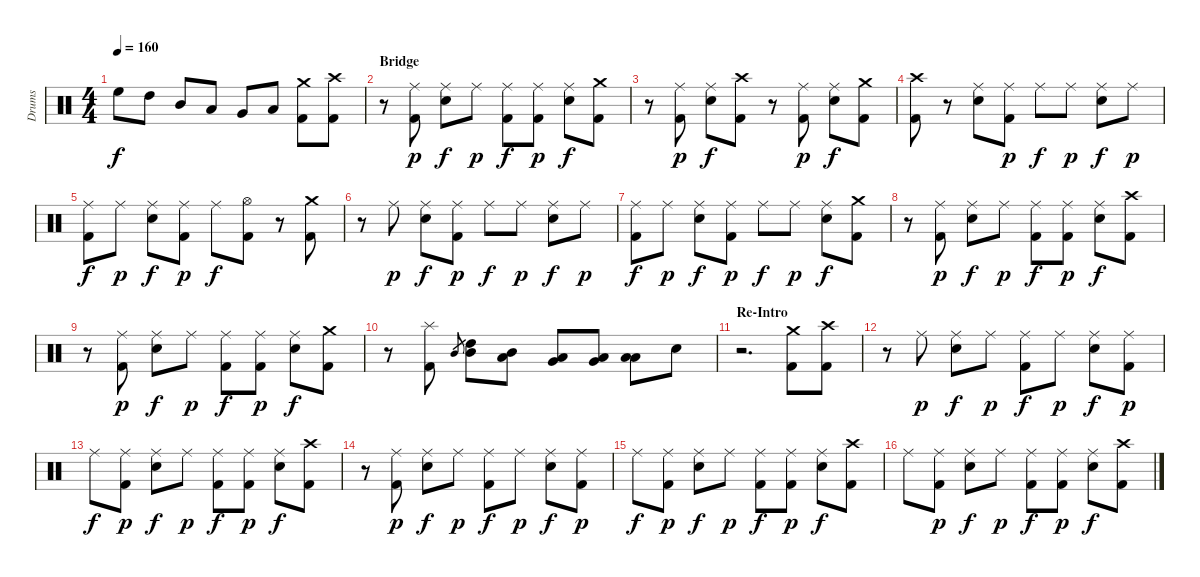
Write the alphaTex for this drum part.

\track ("Drums" "Drums") {instrument percussion}
\staff {score}
\articulation defaults
\ts (4 4)
\tempo 160
\clef neutral
\ks c "High Floor Tom (hit)".8{dy f} "High Tom (hit)".8 "Mid Tom (hit)".8 "Low Tom (hit)".8 "Very Low Tom (hit)".8 "Low Floor Tom (hit)".8
("Crash medium (hit)" "Kick (hit) 2").8 ("Crash high (hit)" "Kick (hit) 2").8 |
\section ("" "Bridge")
r.8 ("Ride (middle)" "Kick (hit) 2").8{dy p} ("Ride (middle)" "Snare (hit) 2").8{dy f} "Ride (middle)".8{dy p} ("Ride (middle)" "Kick (hit) 2").8{dy f} ("Ride (middle)" "Kick (hit) 2").8{dy p} ("Ride (middle)" "Snare (hit) 2").8{dy f} ("Crash medium (hit)" "Kick (hit) 2").8 |
r.8 ("Ride (middle)" "Kick (hit) 2").8{dy p} ("Ride (middle)" "Snare (hit) 2").8{dy f} ("Crash high (hit)" "Kick (hit) 2").8 r.8 ("Ride (middle)" "Kick (hit) 2").8{dy p} ("Ride (middle)" "Snare (hit) 2").8{dy f} ("Crash medium (hit)" "Kick (hit) 2").8 |
("Crash high (hit)" "Kick (hit) 2").8 r.8 ("Ride (middle)" "Snare (hit) 2").8 ("Ride (middle)" "Kick (hit) 2").8{dy p} "Ride (middle)".8{dy f} "Ride (middle)".8{dy p} ("Ride (middle)" "Snare (hit) 2").8{dy f} "Ride (middle)".8{dy p} |
("Ride (middle)" "Kick (hit) 2").8{dy f} "Ride (middle)".8{dy p} ("Ride (middle)" "Snare (hit) 2").8{dy f} ("Ride (middle)" "Kick (hit) 2").8{dy p} "Ride (middle)".8{dy f} ("Hi-Hat (open)" "Kick (hit) 2").8 r.8 ("Crash medium (hit)" "Kick (hit) 2").8 |
r.8 "Ride (middle)".8{dy p} ("Ride (middle)" "Snare (hit) 2").8{dy f} ("Ride (middle)" "Kick (hit) 2").8{dy p} "Ride (middle)".8{dy f} "Ride (middle)".8{dy p} ("Ride (middle)" "Snare (hit) 2").8{dy f} "Ride (middle)".8{dy p} |
("Ride (middle)" "Kick (hit) 2").8{dy f} "Ride (middle)".8{dy p} ("Ride (middle)" "Snare (hit) 2").8{dy f} ("Ride (middle)" "Kick (hit) 2").8{dy p} "Ride (middle)".8{dy f} "Ride (middle)".8{dy p} ("Ride (middle)" "Snare (hit) 2").8{dy f} ("Crash medium (hit)" "Kick (hit) 2").8 |
r.8 ("Ride (middle)" "Kick (hit) 2").8{dy p} ("Ride (middle)" "Snare (hit) 2").8{dy f} "Ride (middle)".8{dy p} ("Ride (middle)" "Kick (hit) 2").8{dy f} ("Ride (middle)" "Kick (hit) 2").8{dy p} ("Ride (middle)" "Snare (hit) 2").8{dy f} ("Crash high (hit)" "Kick (hit) 2").8 |
r.8 ("Ride (middle)" "Kick (hit) 2").8{dy p} ("Ride (middle)" "Snare (hit) 2").8{dy f} "Ride (middle)".8{dy p} ("Ride (middle)" "Kick (hit) 2").8{dy f} ("Ride (middle)" "Kick (hit) 2").8{dy p} ("Ride (middle)" "Snare (hit) 2").8{dy f} ("Crash medium (hit)" "Kick (hit) 2").8 |
r.8 ("Splash (hit)" "Kick (hit) 2").8 "Mid Tom (hit)".8{gr} ("High Tom (hit)" "Mid Tom (hit)").8 ("Mid Tom (hit)" "Low Tom (hit)").8 ("Low Tom (hit)" "Very Low Tom (hit)").8 ("Very Low Tom (hit)" "Low Floor Tom (hit)").8 ("Low Floor Tom (hit)" "Low Floor Tom (hit)").8 "Snare (hit) 2".8 |
\section ("" "Re-Intro")
r.2{d} ("Crash medium (hit)" "Kick (hit) 2").8 ("Crash high (hit)" "Kick (hit) 2").8 |
r.8 "Ride (middle)".8{dy p} ("Ride (middle)" "Snare (hit) 2").8{dy f} "Ride (middle)".8{dy p} ("Ride (middle)" "Kick (hit) 2").8{dy f} "Ride (middle)".8{dy p} ("Ride (middle)" "Snare (hit) 2").8{dy f} ("Ride (middle)" "Kick (hit) 2").8{dy p} |
"Ride (middle)".8{dy f} ("Ride (middle)" "Kick (hit) 2").8{dy p} ("Ride (middle)" "Snare (hit) 2").8{dy f} "Ride (middle)".8{dy p} ("Ride (middle)" "Kick (hit) 2").8{dy f} ("Ride (middle)" "Kick (hit) 2").8{dy p} ("Ride (middle)" "Snare (hit) 2").8{dy f} ("Crash high (hit)" "Kick (hit) 2").8 |
r.8 ("Ride (middle)" "Kick (hit) 2").8{dy p} ("Ride (middle)" "Snare (hit) 2").8{dy f} "Ride (middle)".8{dy p} ("Ride (middle)" "Kick (hit) 2").8{dy f} "Ride (middle)".8{dy p} ("Ride (middle)" "Snare (hit) 2").8{dy f} ("Ride (middle)" "Kick (hit) 2").8{dy p} |
"Ride (middle)".8{dy f} ("Ride (middle)" "Kick (hit) 2").8{dy p} ("Ride (middle)" "Snare (hit) 2").8{dy f} "Ride (middle)".8{dy p} ("Ride (middle)" "Kick (hit) 2").8{dy f} ("Ride (middle)" "Kick (hit) 2").8{dy p} ("Ride (middle)" "Snare (hit) 2").8{dy f} ("Crash high (hit)" "Kick (hit) 2").8 |
"Ride (middle)".8 ("Ride (middle)" "Kick (hit) 2").8{dy p} ("Ride (middle)" "Snare (hit) 2").8{dy f} "Ride (middle)".8{dy p} ("Ride (middle)" "Kick (hit) 2").8{dy f} ("Ride (middle)" "Kick (hit) 2").8{dy p} ("Ride (middle)" "Snare (hit) 2").8{dy f} ("Crash high (hit)" "Kick (hit) 2").8
